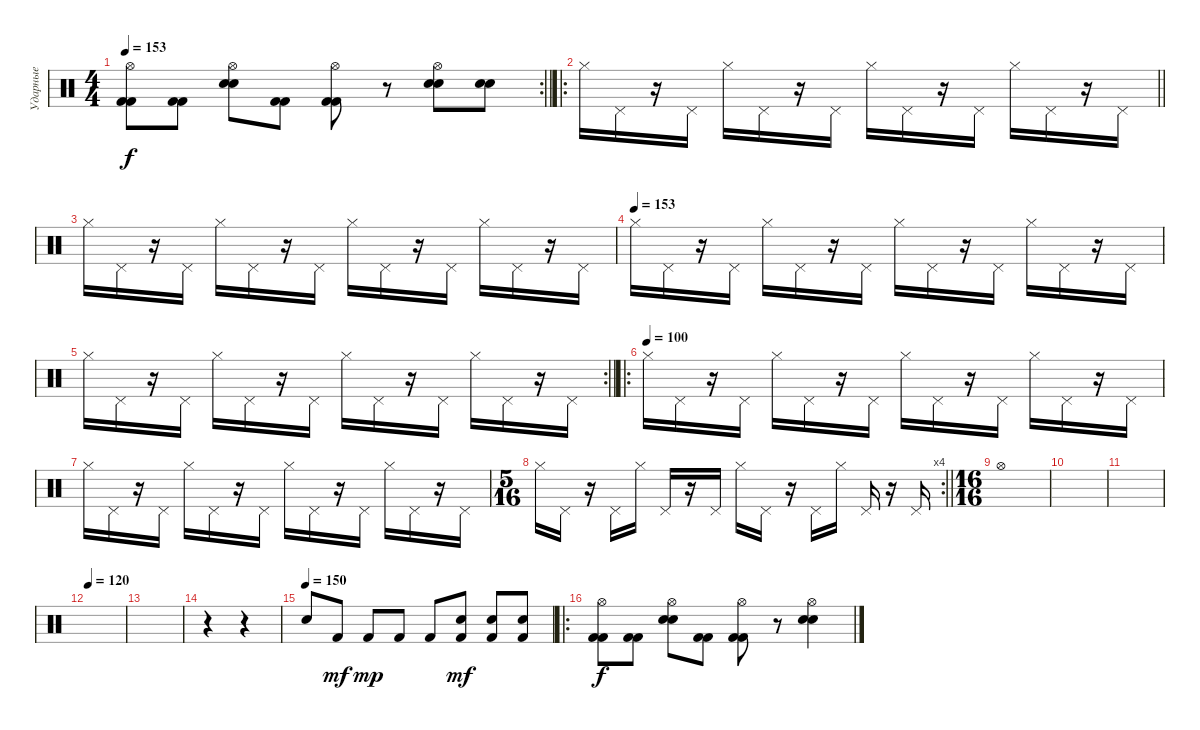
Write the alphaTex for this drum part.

\track ("Ударные" "Ударные") {instrument percussion}
\staff {score}
\articulation defaults
\rc 2
\ts (4 4)
\tempo 153
\clef neutral
\barLineRight lightlight
\ks c
("Kick (hit) 2" "Kick (hit) 2" "Hi-Hat (open)").8{dy f} ("Kick (hit) 2" "Kick (hit) 2").8 ("Electric Snare (hit)" "Electric Snare (hit)" "Hi-Hat (open)").8 ("Kick (hit) 2" "Kick (hit) 2").8 ("Kick (hit) 2" "Kick (hit) 2" "Hi-Hat (open)").8 r.8 ("Electric Snare (hit)" "Electric Snare (hit)" "Hi-Hat (open)").8 ("Electric Snare (hit)" "Electric Snare (hit)").8 |
\ro
\barLineRight lightlight "Hi-Hat (closed)".16 "Pedal Hi-Hat (hit)".16
r.16 "Pedal Hi-Hat (hit)".16 "Hi-Hat (closed)".16 "Pedal Hi-Hat (hit)".16 r.16 "Pedal Hi-Hat (hit)".16 "Hi-Hat (closed)".16 "Pedal Hi-Hat (hit)".16 r.16 "Pedal Hi-Hat (hit)".16 "Hi-Hat (closed)".16 "Pedal Hi-Hat (hit)".16 r.16 "Pedal Hi-Hat (hit)".16 |
"Hi-Hat (closed)".16 "Pedal Hi-Hat (hit)".16 r.16 "Pedal Hi-Hat (hit)".16 "Hi-Hat (closed)".16 "Pedal Hi-Hat (hit)".16 r.16 "Pedal Hi-Hat (hit)".16 "Hi-Hat (closed)".16 "Pedal Hi-Hat (hit)".16 r.16 "Pedal Hi-Hat (hit)".16 "Hi-Hat (closed)".16 "Pedal Hi-Hat (hit)".16 r.16 "Pedal Hi-Hat (hit)".16 |
\tempo (153)
"Hi-Hat (closed)".16{volume 13} "Pedal Hi-Hat (hit)".16 r.16 "Pedal Hi-Hat (hit)".16 "Hi-Hat (closed)".16 "Pedal Hi-Hat (hit)".16 r.16 "Pedal Hi-Hat (hit)".16 "Hi-Hat (closed)".16 "Pedal Hi-Hat (hit)".16 r.16 "Pedal Hi-Hat (hit)".16 "Hi-Hat (closed)".16 "Pedal Hi-Hat (hit)".16 r.16 "Pedal Hi-Hat (hit)".16 |
\rc 2
\barLineRight lightlight "Hi-Hat (closed)".16 "Pedal Hi-Hat (hit)".16
r.16 "Pedal Hi-Hat (hit)".16 "Hi-Hat (closed)".16 "Pedal Hi-Hat (hit)".16 r.16 "Pedal Hi-Hat (hit)".16 "Hi-Hat (closed)".16 "Pedal Hi-Hat (hit)".16 r.16 "Pedal Hi-Hat (hit)".16 "Hi-Hat (closed)".16 "Pedal Hi-Hat (hit)".16 r.16 "Pedal Hi-Hat (hit)".16 |
\ro
\tempo (100)
"Hi-Hat (closed)".16 "Pedal Hi-Hat (hit)".16 r.16 "Pedal Hi-Hat (hit)".16 "Hi-Hat (closed)".16 "Pedal Hi-Hat (hit)".16 r.16 "Pedal Hi-Hat (hit)".16 "Hi-Hat (closed)".16 "Pedal Hi-Hat (hit)".16 r.16 "Pedal Hi-Hat (hit)".16 "Hi-Hat (closed)".16 "Pedal Hi-Hat (hit)".16 r.16 "Pedal Hi-Hat (hit)".16 |
"Hi-Hat (closed)".16 "Pedal Hi-Hat (hit)".16 r.16 "Pedal Hi-Hat (hit)".16 "Hi-Hat (closed)".16 "Pedal Hi-Hat (hit)".16 r.16 "Pedal Hi-Hat (hit)".16 "Hi-Hat (closed)".16 "Pedal Hi-Hat (hit)".16 r.16 "Pedal Hi-Hat (hit)".16 "Hi-Hat (closed)".16 "Pedal Hi-Hat (hit)".16 r.16 "Pedal Hi-Hat (hit)".16 |
\rc 4
\ts (5 16)
\barLineRight lightlight "Hi-Hat (closed)".16 "Pedal Hi-Hat (hit)".16
r.16 "Pedal Hi-Hat (hit)".16 "Hi-Hat (closed)".16 "Pedal Hi-Hat (hit)".16 r.16 "Pedal Hi-Hat (hit)".16 "Hi-Hat (closed)".16 "Pedal Hi-Hat (hit)".16 r.16 "Pedal Hi-Hat (hit)".16 "Hi-Hat (closed)".16 "Pedal Hi-Hat (hit)".16 r.16 "Pedal Hi-Hat (hit)".16 |
\ts (16 16)
"Hi-Hat (open)".1 |
|
|
\tempo 120
|
|
r.4 r.4 |
\tempo (150)
"Electric Snare (hit)".8 "Kick (hit) 2".8{dy mf} "Kick (hit) 2".8{dy mp} "Kick (hit) 2".8 "Kick (hit) 2".8 ("Kick (hit) 2" "Electric Snare (hit)").8{dy mf} ("Kick (hit) 2" "Electric Snare (hit)").8 ("Kick (hit) 2" "Electric Snare (hit)").8 |
\ro
("Kick (hit) 2" "Kick (hit) 2" "Hi-Hat (open)").8{dy f} ("Kick (hit) 2" "Kick (hit) 2").8 ("Electric Snare (hit)" "Electric Snare (hit)" "Hi-Hat (open)").8 ("Kick (hit) 2" "Kick (hit) 2").8 ("Kick (hit) 2" "Kick (hit) 2" "Hi-Hat (open)").8 r.8 ("Electric Snare (hit)" "Electric Snare (hit)" "Hi-Hat (open)").4
